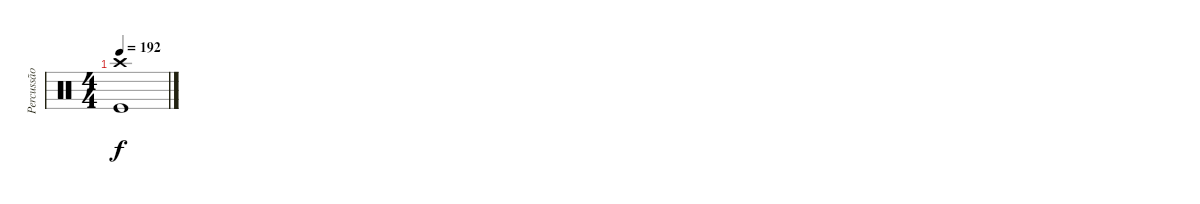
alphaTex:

\track ("Percussão" "Percussão") {instrument percussion}
\staff {score}
\articulation defaults
\ts (4 4)
\tempo 192
\clef neutral
\ks c
("Crash high (hit)" "Kick (hit)").1{dy f}
